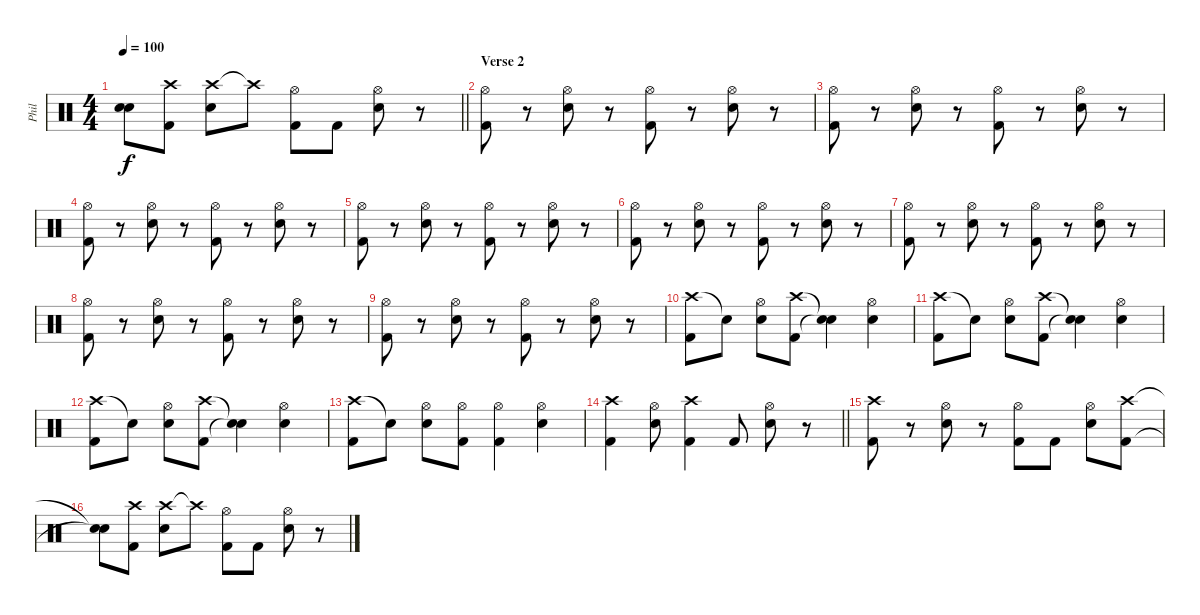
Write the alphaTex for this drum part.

\track ("Phil" "Phil") {instrument percussion}
\staff {score}
\articulation defaults
\ts (4 4)
\tempo 100
\clef neutral
\barLineRight lightlight
\ks c
("Snare (hit)"{t} "Snare (hit)"{t}).8{dy f} ("Crash high (hit)" "Kick (hit) 2").8 ("Crash high (hit)" "Electric Snare (hit)").8 "Crash high (hit)"{t}.8 ("Hi-Hat (open)" "Kick (hit) 2").8 "Kick (hit) 2".8 ("Hi-Hat (open)" "Electric Snare (hit)").8 r.8 |
\section ("" "Verse 2")
("Hi-Hat (open)" "Kick (hit) 2").8 r.8 ("Hi-Hat (open)" "Electric Snare (hit)").8 r.8 ("Hi-Hat (open)" "Kick (hit) 2").8 r.8 ("Hi-Hat (open)" "Electric Snare (hit)").8 r.8 |
("Hi-Hat (open)" "Kick (hit) 2").8 r.8 ("Hi-Hat (open)" "Electric Snare (hit)").8 r.8 ("Hi-Hat (open)" "Kick (hit) 2").8 r.8 ("Hi-Hat (open)" "Electric Snare (hit)").8 r.8 |
("Hi-Hat (open)" "Kick (hit) 2").8 r.8 ("Hi-Hat (open)" "Electric Snare (hit)").8 r.8 ("Hi-Hat (open)" "Kick (hit) 2").8 r.8 ("Hi-Hat (open)" "Electric Snare (hit)").8 r.8 |
("Hi-Hat (open)" "Kick (hit) 2").8 r.8 ("Hi-Hat (open)" "Electric Snare (hit)").8 r.8 ("Hi-Hat (open)" "Kick (hit) 2").8 r.8 ("Hi-Hat (open)" "Electric Snare (hit)").8 r.8 |
("Hi-Hat (open)" "Kick (hit) 2").8 r.8 ("Hi-Hat (open)" "Electric Snare (hit)").8 r.8 ("Hi-Hat (open)" "Kick (hit) 2").8 r.8 ("Hi-Hat (open)" "Electric Snare (hit)").8 r.8 |
("Hi-Hat (open)" "Kick (hit) 2").8 r.8 ("Hi-Hat (open)" "Electric Snare (hit)").8 r.8 ("Hi-Hat (open)" "Kick (hit) 2").8 r.8 ("Hi-Hat (open)" "Electric Snare (hit)").8 r.8 |
("Hi-Hat (open)" "Kick (hit) 2").8 r.8 ("Hi-Hat (open)" "Electric Snare (hit)").8 r.8 ("Hi-Hat (open)" "Kick (hit) 2").8 r.8 ("Hi-Hat (open)" "Electric Snare (hit)").8 r.8 |
("Hi-Hat (open)" "Kick (hit) 2").8 r.8 ("Hi-Hat (open)" "Electric Snare (hit)").8 r.8 ("Hi-Hat (open)" "Kick (hit) 2").8 r.8 ("Hi-Hat (open)" "Electric Snare (hit)").8 r.8 |
("Crash high (hit)" "Kick (hit) 2").8 "Snare (hit)"{t}.8 ("Hi-Hat (open)" "Electric Snare (hit)").8 ("Crash high (hit)" "Kick (hit) 2").8 ("Snare (hit)"{t} "Snare (hit)"{t}).4 ("Hi-Hat (open)" "Electric Snare (hit)").4 |
("Crash high (hit)" "Kick (hit) 2").8 "Snare (hit)"{t}.8 ("Hi-Hat (open)" "Electric Snare (hit)").8 ("Crash high (hit)" "Kick (hit) 2").8 ("Snare (hit)"{t} "Snare (hit)"{t}).4 ("Hi-Hat (open)" "Electric Snare (hit)").4 |
("Crash high (hit)" "Kick (hit) 2").8 "Snare (hit)"{t}.8 ("Hi-Hat (open)" "Electric Snare (hit)").8 ("Crash high (hit)" "Kick (hit) 2").8 ("Snare (hit)"{t} "Snare (hit)"{t}).4 ("Hi-Hat (open)" "Electric Snare (hit)").4 |
("Crash high (hit)" "Kick (hit) 2").8 "Snare (hit)"{t}.8 ("Hi-Hat (open)" "Electric Snare (hit)").8 ("Hi-Hat (open)" "Kick (hit) 2").8 ("Hi-Hat (open)" "Kick (hit) 2").4 ("Hi-Hat (open)" "Electric Snare (hit)").4 |
\barLineRight lightlight
("Crash high (hit)" "Kick (hit) 2").4 ("Hi-Hat (open)" "Electric Snare (hit)").8 ("Crash high (hit)" "Kick (hit) 2").4 "Kick (hit) 2".8 ("Hi-Hat (open)" "Electric Snare (hit)").8 r.8 |
("Crash high (hit)" "Kick (hit) 2").8 r.8 ("Hi-Hat (open)" "Electric Snare (hit)").8 r.8 ("Hi-Hat (open)" "Kick (hit) 2").8 "Kick (hit) 2".8 ("Hi-Hat (open)" "Electric Snare (hit)").8 ("Crash high (hit)" "Kick (hit) 2").8 |
("Snare (hit)"{t} "Snare (hit)"{t}).8 ("Crash high (hit)" "Kick (hit) 2").8 ("Crash high (hit)" "Electric Snare (hit)").8 "Crash high (hit)"{t}.8 ("Hi-Hat (open)" "Kick (hit) 2").8 "Kick (hit) 2".8 ("Hi-Hat (open)" "Electric Snare (hit)").8 r.8
